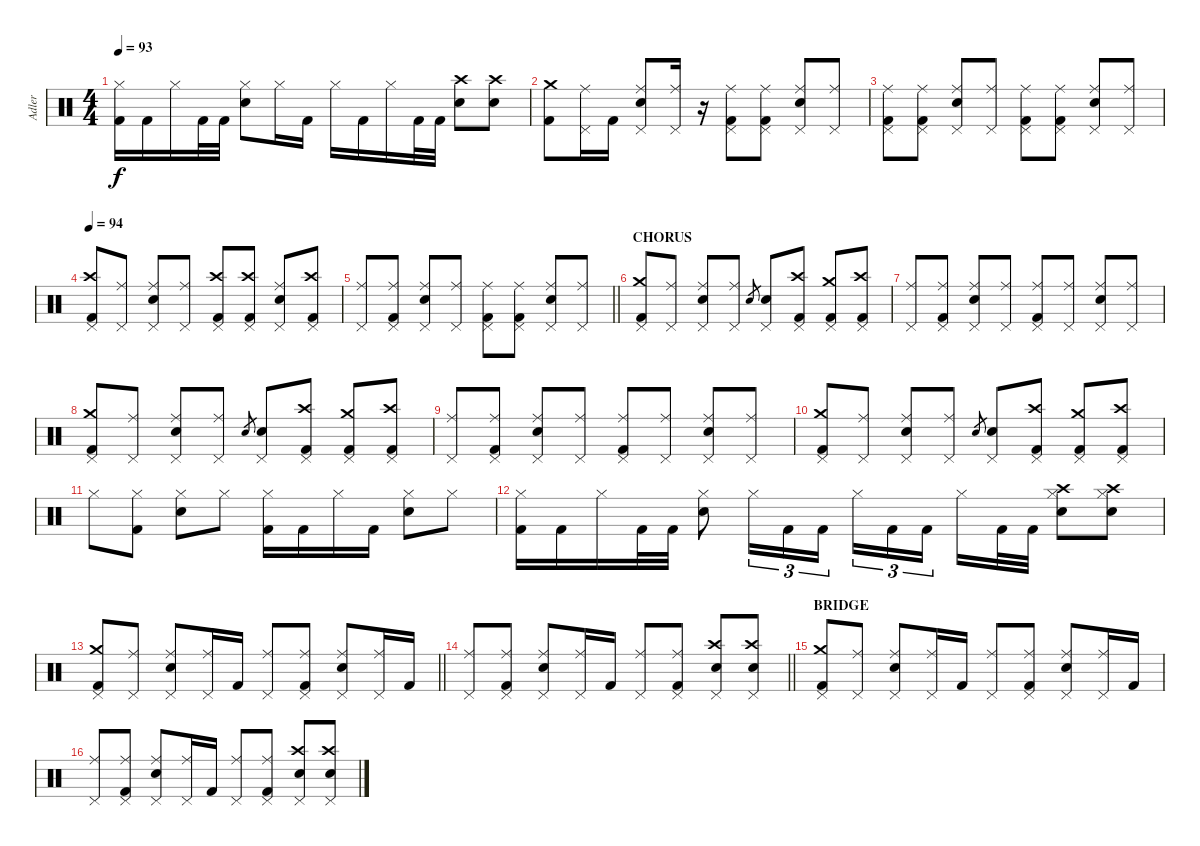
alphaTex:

\track ("Adler" "Adler") {instrument percussion}
\staff {score}
\articulation defaults
\ts (4 4)
\tempo 93
\clef neutral
\ks c
("Hi-Hat (closed)" "Kick (hit) 2").16{dy f} "Kick (hit) 2".16 "Hi-Hat (closed)".16 "Kick (hit) 2".32 "Kick (hit) 2".32 ("Hi-Hat (closed)" "Snare (hit) 2").8 "Hi-Hat (closed)".16 "Kick (hit) 2".16 "Hi-Hat (closed)".16 "Kick (hit) 2".16 "Hi-Hat (closed)".16 "Kick (hit) 2".32 "Kick (hit) 2".32 ("Crash high (hit)" "Snare (hit) 2").8 ("Crash high (hit)" "Snare (hit) 2").8 |
("Crash medium (hit)" "Kick (hit) 2").8 ("Pedal Hi-Hat (hit)" "Ride (middle)").16 "Kick (hit) 2".16 ("Snare (hit) 2" "Pedal Hi-Hat (hit)" "Ride (middle)").8 ("Pedal Hi-Hat (hit)" "Ride (middle)").16 r.16 ("Kick (hit) 2" "Pedal Hi-Hat (hit)" "Ride (middle)").8 ("Kick (hit) 2" "Pedal Hi-Hat (hit)" "Ride (middle)").8 ("Snare (hit) 2" "Pedal Hi-Hat (hit)" "Ride (middle)").8 ("Pedal Hi-Hat (hit)" "Ride (middle)").8 |
("Kick (hit) 2" "Pedal Hi-Hat (hit)" "Ride (middle)").8 ("Kick (hit) 2" "Pedal Hi-Hat (hit)" "Ride (middle)").8 ("Snare (hit) 2" "Pedal Hi-Hat (hit)" "Ride (middle)").8 ("Pedal Hi-Hat (hit)" "Ride (middle)").8 ("Kick (hit) 2" "Pedal Hi-Hat (hit)" "Ride (middle)").8 ("Kick (hit) 2" "Pedal Hi-Hat (hit)" "Ride (middle)").8 ("Snare (hit) 2" "Pedal Hi-Hat (hit)" "Ride (middle)").8 ("Pedal Hi-Hat (hit)" "Ride (middle)").8 |
\tempo 94
("Crash high (hit)" "Kick (hit) 2" "Pedal Hi-Hat (hit)").8 ("Pedal Hi-Hat (hit)" "Ride (middle)").8 ("Snare (hit) 2" "Pedal Hi-Hat (hit)" "Ride (middle)").8 ("Pedal Hi-Hat (hit)" "Ride (middle)").8 ("Crash high (hit)" "Kick (hit) 2" "Pedal Hi-Hat (hit)").8 ("Crash high (hit)" "Kick (hit) 2" "Pedal Hi-Hat (hit)").8 ("Snare (hit) 2" "Pedal Hi-Hat (hit)" "Ride (middle)").8 ("Crash high (hit)" "Kick (hit) 2" "Pedal Hi-Hat (hit)").8 |
\barLineRight lightlight
("Pedal Hi-Hat (hit)" "Ride (middle)").8 ("Kick (hit) 2" "Pedal Hi-Hat (hit)" "Ride (middle)").8 ("Snare (hit) 2" "Pedal Hi-Hat (hit)" "Ride (middle)").8 ("Pedal Hi-Hat (hit)" "Ride (middle)").8 ("Kick (hit) 2" "Pedal Hi-Hat (hit)" "Ride (middle)").8 ("Kick (hit) 2" "Pedal Hi-Hat (hit)" "Ride (middle)").8 ("Snare (hit) 2" "Pedal Hi-Hat (hit)" "Ride (middle)").8 ("Pedal Hi-Hat (hit)" "Ride (middle)").8 |
\section ("" "CHORUS")
("Crash medium (hit)" "Kick (hit) 2" "Pedal Hi-Hat (hit)").8 ("Pedal Hi-Hat (hit)" "Ride (middle)").8 ("Snare (hit) 2" "Pedal Hi-Hat (hit)" "Ride (middle)").8 ("Pedal Hi-Hat (hit)" "Ride (middle)").8 "Snare (hit) 2".8{gr} ("Snare (hit) 2" "Pedal Hi-Hat (hit)").8 ("Crash high (hit)" "Kick (hit) 2" "Pedal Hi-Hat (hit)").8 ("Crash medium (hit)" "Kick (hit) 2" "Pedal Hi-Hat (hit)").8 ("Crash high (hit)" "Kick (hit) 2" "Pedal Hi-Hat (hit)").8 |
("Pedal Hi-Hat (hit)" "Ride (middle)").8 ("Kick (hit) 2" "Pedal Hi-Hat (hit)" "Ride (middle)").8 ("Snare (hit) 2" "Pedal Hi-Hat (hit)" "Ride (middle)").8 ("Pedal Hi-Hat (hit)" "Ride (middle)").8 ("Kick (hit) 2" "Pedal Hi-Hat (hit)" "Ride (middle)").8 ("Pedal Hi-Hat (hit)" "Ride (middle)").8 ("Snare (hit) 2" "Pedal Hi-Hat (hit)" "Ride (middle)").8 ("Pedal Hi-Hat (hit)" "Ride (middle)").8 |
("Crash medium (hit)" "Kick (hit) 2" "Pedal Hi-Hat (hit)").8 ("Pedal Hi-Hat (hit)" "Ride (middle)").8 ("Snare (hit) 2" "Pedal Hi-Hat (hit)" "Ride (middle)").8 ("Pedal Hi-Hat (hit)" "Ride (middle)").8 "Snare (hit) 2".8{gr} ("Snare (hit) 2" "Pedal Hi-Hat (hit)").8 ("Crash high (hit)" "Kick (hit) 2" "Pedal Hi-Hat (hit)").8 ("Crash medium (hit)" "Kick (hit) 2" "Pedal Hi-Hat (hit)").8 ("Crash high (hit)" "Kick (hit) 2" "Pedal Hi-Hat (hit)").8 |
("Pedal Hi-Hat (hit)" "Ride (middle)").8 ("Kick (hit) 2" "Pedal Hi-Hat (hit)" "Ride (middle)").8 ("Snare (hit) 2" "Pedal Hi-Hat (hit)" "Ride (middle)").8 ("Pedal Hi-Hat (hit)" "Ride (middle)").8 ("Kick (hit) 2" "Pedal Hi-Hat (hit)" "Ride (middle)").8 ("Pedal Hi-Hat (hit)" "Ride (middle)").8 ("Snare (hit) 2" "Pedal Hi-Hat (hit)" "Ride (middle)").8 ("Pedal Hi-Hat (hit)" "Ride (middle)").8 |
("Crash medium (hit)" "Kick (hit) 2" "Pedal Hi-Hat (hit)").8 ("Pedal Hi-Hat (hit)" "Ride (middle)").8 ("Snare (hit) 2" "Pedal Hi-Hat (hit)" "Ride (middle)").8 ("Pedal Hi-Hat (hit)" "Ride (middle)").8 "Snare (hit) 2".8{gr} ("Snare (hit) 2" "Pedal Hi-Hat (hit)").8 ("Crash high (hit)" "Kick (hit) 2" "Pedal Hi-Hat (hit)").8 ("Crash medium (hit)" "Kick (hit) 2" "Pedal Hi-Hat (hit)").8 ("Crash high (hit)" "Kick (hit) 2" "Pedal Hi-Hat (hit)").8 |
"Hi-Hat (closed)".8 ("Kick (hit) 2" "Hi-Hat (closed)").8 ("Snare (hit) 2" "Hi-Hat (closed)").8 "Hi-Hat (closed)".8 ("Kick (hit) 2" "Hi-Hat (closed)").16 "Kick (hit) 2".16 "Hi-Hat (closed)".16 "Kick (hit) 2".16 ("Snare (hit) 2" "Hi-Hat (closed)").8 "Hi-Hat (closed)".8 |
("Kick (hit) 2" "Hi-Hat (closed)").16 "Kick (hit) 2".16 "Hi-Hat (closed)".16 "Kick (hit) 2".32 "Kick (hit) 2".32 ("Snare (hit) 2" "Hi-Hat (closed)").8 "Hi-Hat (closed)".16{tu (3 2)} "Kick (hit) 2".16{tu (3 2)} "Kick (hit) 2".16{tu (3 2)} "Hi-Hat (closed)".16{tu (3 2)} "Kick (hit) 2".16{tu (3 2)} "Kick (hit) 2".16{tu (3 2) beam splitsecondary} "Hi-Hat (closed)".16 "Kick (hit) 2".32 "Kick (hit) 2".32 ("Crash high (hit)" "Snare (hit) 2" "Hi-Hat (closed)").8 ("Crash high (hit)" "Snare (hit) 2" "Hi-Hat (closed)").8 |
\barLineRight lightlight
("Crash medium (hit)" "Kick (hit) 2" "Pedal Hi-Hat (hit)").8 ("Pedal Hi-Hat (hit)" "Ride (middle)").8 ("Snare (hit) 2" "Pedal Hi-Hat (hit)" "Ride (middle)").8 ("Pedal Hi-Hat (hit)" "Ride (middle)").16 "Kick (hit) 2".16 ("Pedal Hi-Hat (hit)" "Ride (middle)").8 ("Kick (hit) 2" "Pedal Hi-Hat (hit)" "Ride (middle)").8 ("Snare (hit) 2" "Pedal Hi-Hat (hit)" "Ride (middle)").8 ("Pedal Hi-Hat (hit)" "Ride (middle)").16 "Kick (hit) 2".16 |
\section ("" "")
\barLineRight lightlight
("Pedal Hi-Hat (hit)" "Ride (middle)").8 ("Kick (hit) 2" "Pedal Hi-Hat (hit)" "Ride (middle)").8 ("Snare (hit) 2" "Pedal Hi-Hat (hit)" "Ride (middle)").8 ("Pedal Hi-Hat (hit)" "Ride (middle)").16 "Kick (hit) 2".16 ("Pedal Hi-Hat (hit)" "Ride (middle)").8 ("Kick (hit) 2" "Pedal Hi-Hat (hit)" "Ride (middle)").8 ("Crash high (hit)" "Snare (hit) 2" "Pedal Hi-Hat (hit)").8 ("Crash high (hit)" "Snare (hit) 2" "Pedal Hi-Hat (hit)").8 |
\section ("" "BRIDGE")
("Crash medium (hit)" "Kick (hit) 2" "Pedal Hi-Hat (hit)").8 ("Pedal Hi-Hat (hit)" "Ride (middle)").8 ("Snare (hit) 2" "Pedal Hi-Hat (hit)" "Ride (middle)").8 ("Pedal Hi-Hat (hit)" "Ride (middle)").16 "Kick (hit) 2".16 ("Pedal Hi-Hat (hit)" "Ride (middle)").8 ("Kick (hit) 2" "Pedal Hi-Hat (hit)" "Ride (middle)").8 ("Snare (hit) 2" "Pedal Hi-Hat (hit)" "Ride (middle)").8 ("Pedal Hi-Hat (hit)" "Ride (middle)").16 "Kick (hit) 2".16 |
("Pedal Hi-Hat (hit)" "Ride (middle)").8 ("Kick (hit) 2" "Pedal Hi-Hat (hit)" "Ride (middle)").8 ("Snare (hit) 2" "Pedal Hi-Hat (hit)" "Ride (middle)").8 ("Pedal Hi-Hat (hit)" "Ride (middle)").16 "Kick (hit) 2".16 ("Pedal Hi-Hat (hit)" "Ride (middle)").8 ("Kick (hit) 2" "Pedal Hi-Hat (hit)" "Ride (middle)").8 ("Crash high (hit)" "Snare (hit) 2" "Pedal Hi-Hat (hit)").8 ("Crash high (hit)" "Snare (hit) 2" "Pedal Hi-Hat (hit)").8
